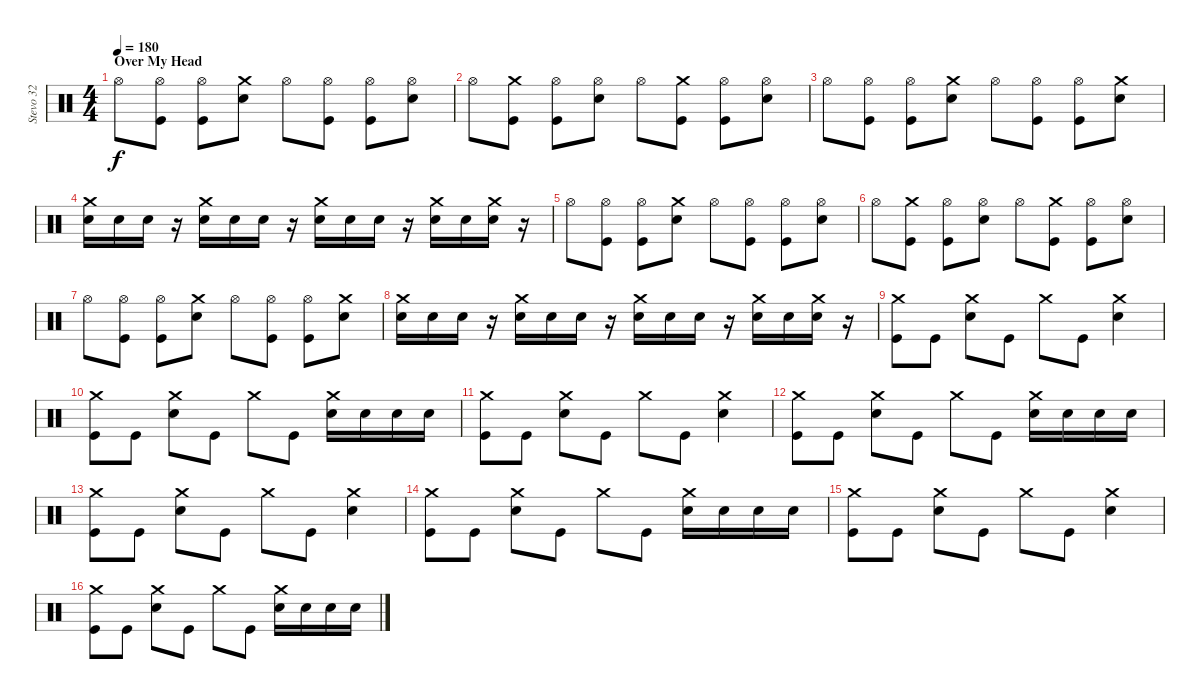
\track ("Stevo 32" "Stevo 32") {instrument percussion}
\staff {score}
\articulation defaults
\ts (4 4)
\section ("" "Over My Head")
\tempo 180
\clef neutral
\ks c "Hi-Hat (open)".8{dy f}
("Hi-Hat (open)" "Kick (hit)").8 ("Hi-Hat (open)" "Kick (hit)").8 ("Crash medium (hit)" "Snare (hit) 2").8 "Hi-Hat (open)".8 ("Hi-Hat (open)" "Kick (hit)").8 ("Hi-Hat (open)" "Kick (hit)").8 ("Hi-Hat (open)" "Snare (hit) 2").8 |
"Hi-Hat (open)".8 ("Crash medium (hit)" "Kick (hit)").8 ("Hi-Hat (open)" "Kick (hit)").8 ("Hi-Hat (open)" "Snare (hit) 2").8 "Hi-Hat (open)".8 ("Crash medium (hit)" "Kick (hit)").8 ("Hi-Hat (open)" "Kick (hit)").8 ("Hi-Hat (open)" "Snare (hit) 2").8 |
"Hi-Hat (open)".8 ("Hi-Hat (open)" "Kick (hit)").8 ("Hi-Hat (open)" "Kick (hit)").8 ("Crash medium (hit)" "Snare (hit) 2").8 "Hi-Hat (open)".8 ("Hi-Hat (open)" "Kick (hit)").8 ("Hi-Hat (open)" "Kick (hit)").8 ("Crash medium (hit)" "Snare (hit) 2").8 |
("Crash medium (hit)" "Snare (hit) 2").16 "Snare (hit) 2".16 "Snare (hit) 2".16 r.16 ("Crash medium (hit)" "Snare (hit) 2").16 "Snare (hit) 2".16 "Snare (hit) 2".16 r.16 ("Crash medium (hit)" "Snare (hit) 2").16 "Snare (hit) 2".16 "Snare (hit) 2".16 r.16 ("Crash medium (hit)" "Snare (hit) 2").16 "Snare (hit) 2".16 ("Crash medium (hit)" "Snare (hit) 2").16 r.16 |
"Hi-Hat (open)".8 ("Hi-Hat (open)" "Kick (hit)").8 ("Hi-Hat (open)" "Kick (hit)").8 ("Crash medium (hit)" "Snare (hit) 2").8 "Hi-Hat (open)".8 ("Hi-Hat (open)" "Kick (hit)").8 ("Hi-Hat (open)" "Kick (hit)").8 ("Hi-Hat (open)" "Snare (hit) 2").8 |
"Hi-Hat (open)".8 ("Crash medium (hit)" "Kick (hit)").8 ("Hi-Hat (open)" "Kick (hit)").8 ("Hi-Hat (open)" "Snare (hit) 2").8 "Hi-Hat (open)".8 ("Crash medium (hit)" "Kick (hit)").8 ("Hi-Hat (open)" "Kick (hit)").8 ("Hi-Hat (open)" "Snare (hit) 2").8 |
"Hi-Hat (open)".8 ("Hi-Hat (open)" "Kick (hit)").8 ("Hi-Hat (open)" "Kick (hit)").8 ("Crash medium (hit)" "Snare (hit) 2").8 "Hi-Hat (open)".8 ("Hi-Hat (open)" "Kick (hit)").8 ("Hi-Hat (open)" "Kick (hit)").8 ("Crash medium (hit)" "Snare (hit) 2").8 |
("Crash medium (hit)" "Snare (hit) 2").16 "Snare (hit) 2".16 "Snare (hit) 2".16 r.16 ("Crash medium (hit)" "Snare (hit) 2").16 "Snare (hit) 2".16 "Snare (hit) 2".16 r.16 ("Crash medium (hit)" "Snare (hit) 2").16 "Snare (hit) 2".16 "Snare (hit) 2".16 r.16 ("Crash medium (hit)" "Snare (hit) 2").16 "Snare (hit) 2".16 ("Crash medium (hit)" "Snare (hit) 2").16 r.16 |
("Crash medium (hit)" "Kick (hit)").8 "Kick (hit)".8 ("Crash medium (hit)" "Snare (hit) 2").8 "Kick (hit)".8 "Crash medium (hit)".8 "Kick (hit)".8 ("Crash medium (hit)" "Snare (hit) 2").4 |
("Crash medium (hit)" "Kick (hit)").8 "Kick (hit)".8 ("Crash medium (hit)" "Snare (hit) 2").8 "Kick (hit)".8 "Crash medium (hit)".8 "Kick (hit)".8 ("Crash medium (hit)" "Snare (hit) 2").16 "Snare (hit) 2".16 "Snare (hit) 2".16 "Snare (hit) 2".16 |
("Crash medium (hit)" "Kick (hit)").8 "Kick (hit)".8 ("Crash medium (hit)" "Snare (hit) 2").8 "Kick (hit)".8 "Crash medium (hit)".8 "Kick (hit)".8 ("Crash medium (hit)" "Snare (hit) 2").4 |
("Crash medium (hit)" "Kick (hit)").8 "Kick (hit)".8 ("Crash medium (hit)" "Snare (hit) 2").8 "Kick (hit)".8 "Crash medium (hit)".8 "Kick (hit)".8 ("Crash medium (hit)" "Snare (hit) 2").16 "Snare (hit) 2".16 "Snare (hit) 2".16 "Snare (hit) 2".16 |
("Crash medium (hit)" "Kick (hit)").8 "Kick (hit)".8 ("Crash medium (hit)" "Snare (hit) 2").8 "Kick (hit)".8 "Crash medium (hit)".8 "Kick (hit)".8 ("Crash medium (hit)" "Snare (hit) 2").4 |
("Crash medium (hit)" "Kick (hit)").8 "Kick (hit)".8 ("Crash medium (hit)" "Snare (hit) 2").8 "Kick (hit)".8 "Crash medium (hit)".8 "Kick (hit)".8 ("Crash medium (hit)" "Snare (hit) 2").16 "Snare (hit) 2".16 "Snare (hit) 2".16 "Snare (hit) 2".16 |
("Crash medium (hit)" "Kick (hit)").8 "Kick (hit)".8 ("Crash medium (hit)" "Snare (hit) 2").8 "Kick (hit)".8 "Crash medium (hit)".8 "Kick (hit)".8 ("Crash medium (hit)" "Snare (hit) 2").4 |
("Crash medium (hit)" "Kick (hit)").8 "Kick (hit)".8 ("Crash medium (hit)" "Snare (hit) 2").8 "Kick (hit)".8 "Crash medium (hit)".8 "Kick (hit)".8 ("Crash medium (hit)" "Snare (hit) 2").16 "Snare (hit) 2".16 "Snare (hit) 2".16 "Snare (hit) 2".16
